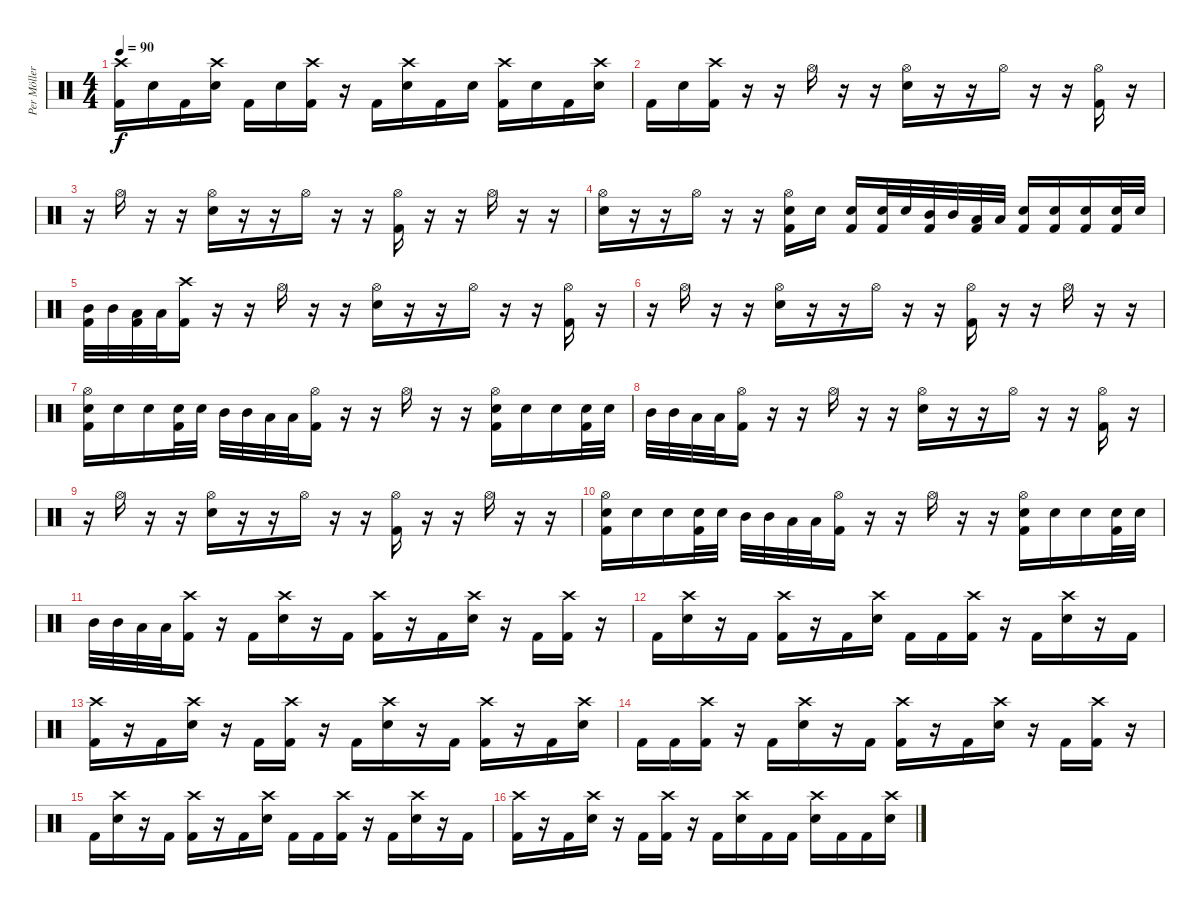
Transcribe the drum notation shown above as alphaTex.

\track ("Per Möller-Jensen" "Per Möller") {instrument percussion}
\staff {score}
\articulation defaults
\ts (4 4)
\tempo 90
\clef neutral
\ks c
("Crash high (hit)" "Kick (hit) 2").16{dy f} "Snare (hit) 2".16 "Kick (hit) 2".16 ("Crash high (hit)" "Snare (hit) 2").16 "Kick (hit) 2".16 "Snare (hit) 2".16 ("Crash high (hit)" "Kick (hit) 2").16 r.16 "Kick (hit) 2".16 ("Crash high (hit)" "Snare (hit) 2").16 "Kick (hit) 2".16 "Snare (hit) 2".16 ("Crash high (hit)" "Kick (hit) 2").16 "Snare (hit) 2".16 "Kick (hit) 2".16 ("Crash high (hit)" "Snare (hit) 2").16 |
"Kick (hit) 2".16 "Snare (hit) 2".16 ("Crash high (hit)" "Kick (hit) 2").16 r.16 r.16 "Hi-Hat (open)".16 r.16 r.16 ("Snare (hit) 2" "Hi-Hat (open)").16 r.16 r.16 "Hi-Hat (open)".16 r.16 r.16 ("Hi-Hat (open)" "Kick (hit) 2").16 r.16 |
r.16 "Hi-Hat (open)".16 r.16 r.16 ("Snare (hit) 2" "Hi-Hat (open)").16 r.16 r.16 "Hi-Hat (open)".16 r.16 r.16 ("Hi-Hat (open)" "Kick (hit) 2").16 r.16 r.16 "Hi-Hat (open)".16 r.16 r.16 |
("Snare (hit) 2" "Hi-Hat (open)").16 r.16 r.16 "Hi-Hat (open)".16 r.16 r.16 ("Snare (hit) 2" "Hi-Hat (open)" "Kick (hit) 2").16 "Snare (hit) 2".16 ("Snare (hit) 2" "Kick (hit) 2").16 ("Snare (hit) 2" "Kick (hit) 2").32 "Snare (hit) 2".32 ("Mid Tom (hit)" "Kick (hit) 2").32 "Mid Tom (hit)".32 ("Low Tom (hit)" "Kick (hit) 2").32 "Low Tom (hit)".32 ("Snare (hit) 2" "Kick (hit) 2").16 ("Snare (hit) 2" "Kick (hit) 2").16 ("Snare (hit) 2" "Kick (hit) 2").16 ("Snare (hit) 2" "Kick (hit) 2").32 "Snare (hit) 2".32 |
("Mid Tom (hit)" "Kick (hit) 2").32 "Mid Tom (hit)".32 ("Low Tom (hit)" "Kick (hit) 2").32 "Low Tom (hit)".32 ("Crash high (hit)" "Kick (hit) 2").16 r.16 r.16 "Hi-Hat (open)".16 r.16 r.16 ("Snare (hit) 2" "Hi-Hat (open)").16 r.16 r.16 "Hi-Hat (open)".16 r.16 r.16 ("Hi-Hat (open)" "Kick (hit) 2").16 r.16 |
r.16 "Hi-Hat (open)".16 r.16 r.16 ("Snare (hit) 2" "Hi-Hat (open)").16 r.16 r.16 "Hi-Hat (open)".16 r.16 r.16 ("Hi-Hat (open)" "Kick (hit) 2").16 r.16 r.16 "Hi-Hat (open)".16 r.16 r.16 |
("Snare (hit) 2" "Hi-Hat (open)" "Kick (hit) 2").16 "Snare (hit) 2".16 "Snare (hit) 2".16 ("Snare (hit) 2" "Kick (hit) 2").32 "Snare (hit) 2".32 "Mid Tom (hit)".32 "Mid Tom (hit)".32 "Low Tom (hit)".32 "Low Tom (hit)".32 ("Hi-Hat (open)" "Kick (hit) 2").16 r.16 r.16 "Hi-Hat (open)".16 r.16 r.16 ("Snare (hit) 2" "Hi-Hat (open)" "Kick (hit) 2").16 "Snare (hit) 2".16 "Snare (hit) 2".16 ("Snare (hit) 2" "Kick (hit) 2").32 "Snare (hit) 2".32 |
"Mid Tom (hit)".32 "Mid Tom (hit)".32 "Low Tom (hit)".32 "Low Tom (hit)".32 ("Hi-Hat (open)" "Kick (hit) 2").16 r.16 r.16 "Hi-Hat (open)".16 r.16 r.16 ("Snare (hit) 2" "Hi-Hat (open)").16 r.16 r.16 "Hi-Hat (open)".16 r.16 r.16 ("Hi-Hat (open)" "Kick (hit) 2").16 r.16 |
r.16 "Hi-Hat (open)".16 r.16 r.16 ("Snare (hit) 2" "Hi-Hat (open)").16 r.16 r.16 "Hi-Hat (open)".16 r.16 r.16 ("Hi-Hat (open)" "Kick (hit) 2").16 r.16 r.16 "Hi-Hat (open)".16 r.16 r.16 |
("Snare (hit) 2" "Hi-Hat (open)" "Kick (hit) 2").16 "Snare (hit) 2".16 "Snare (hit) 2".16 ("Snare (hit) 2" "Kick (hit) 2").32 "Snare (hit) 2".32 "Mid Tom (hit)".32 "Mid Tom (hit)".32 "Low Tom (hit)".32 "Low Tom (hit)".32 ("Hi-Hat (open)" "Kick (hit) 2").16 r.16 r.16 "Hi-Hat (open)".16 r.16 r.16 ("Snare (hit) 2" "Hi-Hat (open)" "Kick (hit) 2").16 "Snare (hit) 2".16 "Snare (hit) 2".16 ("Snare (hit) 2" "Kick (hit) 2").32 "Snare (hit) 2".32 |
"Mid Tom (hit)".32 "Mid Tom (hit)".32 "Low Tom (hit)".32 "Low Tom (hit)".32 ("Crash high (hit)" "Kick (hit) 2").16 r.16 "Kick (hit) 2".16 ("Crash high (hit)" "Snare (hit) 2").16 r.16 "Kick (hit) 2".16 ("Crash high (hit)" "Kick (hit) 2").16 r.16 "Kick (hit) 2".16 ("Crash high (hit)" "Snare (hit) 2").16 r.16 "Kick (hit) 2".16 ("Crash high (hit)" "Kick (hit) 2").16 r.16 |
"Kick (hit) 2".16 ("Crash high (hit)" "Snare (hit) 2").16 r.16 "Kick (hit) 2".16 ("Crash high (hit)" "Kick (hit) 2").16 r.16 "Kick (hit) 2".16 ("Crash high (hit)" "Snare (hit) 2").16 "Kick (hit) 2".16 "Kick (hit) 2".16 ("Crash high (hit)" "Kick (hit) 2").16 r.16 "Kick (hit) 2".16 ("Crash high (hit)" "Snare (hit) 2").16 r.16 "Kick (hit) 2".16 |
("Crash high (hit)" "Kick (hit) 2").16 r.16 "Kick (hit) 2".16 ("Crash high (hit)" "Snare (hit) 2").16 r.16 "Kick (hit) 2".16 ("Crash high (hit)" "Kick (hit) 2").16 r.16 "Kick (hit) 2".16 ("Crash high (hit)" "Snare (hit) 2").16 r.16 "Kick (hit) 2".16 ("Crash high (hit)" "Kick (hit) 2").16 r.16 "Kick (hit) 2".16 ("Crash high (hit)" "Snare (hit) 2").16 |
"Kick (hit) 2".16 "Kick (hit) 2".16 ("Crash high (hit)" "Kick (hit) 2").16 r.16 "Kick (hit) 2".16 ("Crash high (hit)" "Snare (hit) 2").16 r.16 "Kick (hit) 2".16 ("Crash high (hit)" "Kick (hit) 2").16 r.16 "Kick (hit) 2".16 ("Crash high (hit)" "Snare (hit) 2").16 r.16 "Kick (hit) 2".16 ("Crash high (hit)" "Kick (hit) 2").16 r.16 |
"Kick (hit) 2".16 ("Crash high (hit)" "Snare (hit) 2").16 r.16 "Kick (hit) 2".16 ("Crash high (hit)" "Kick (hit) 2").16 r.16 "Kick (hit) 2".16 ("Crash high (hit)" "Snare (hit) 2").16 "Kick (hit) 2".16 "Kick (hit) 2".16 ("Crash high (hit)" "Kick (hit) 2").16 r.16 "Kick (hit) 2".16 ("Crash high (hit)" "Snare (hit) 2").16 r.16 "Kick (hit) 2".16 |
("Crash high (hit)" "Kick (hit) 2").16 r.16 "Kick (hit) 2".16 ("Crash high (hit)" "Snare (hit) 2").16 r.16 "Kick (hit) 2".16 ("Crash high (hit)" "Kick (hit) 2").16 r.16 "Kick (hit) 2".16 ("Crash high (hit)" "Snare (hit) 2").16 "Kick (hit) 2".16 "Kick (hit) 2".16 ("Crash high (hit)" "Snare (hit) 2").16 "Kick (hit) 2".16 "Kick (hit) 2".16 ("Crash high (hit)" "Snare (hit) 2").16
